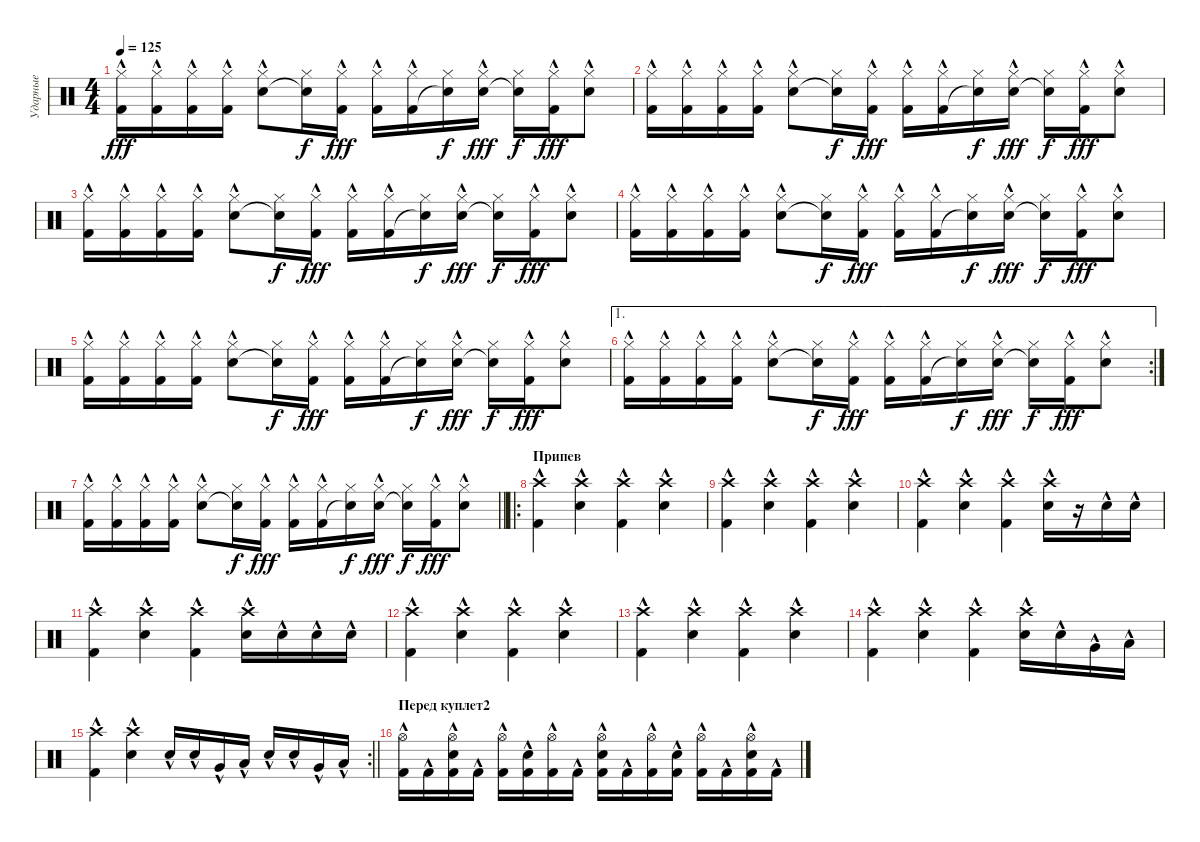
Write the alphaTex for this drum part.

\track ("Ударные" "Ударные") {instrument percussion}
\staff {score}
\articulation defaults
\ts (4 4)
\tempo 125
\clef neutral
\ks c
("Hi-Hat (closed)" "Kick (hit) 2"{hac}).16{dy fff} ("Hi-Hat (closed)" "Kick (hit) 2"{hac}).16 ("Hi-Hat (closed)" "Kick (hit) 2"{hac}).16 ("Hi-Hat (closed)" "Kick (hit) 2"{hac}).16 ("Hi-Hat (closed)" "Electric Snare (hit)"{hac}).8 ("Hi-Hat (closed)" "Snare (hit)"{t}).16{dy f} ("Hi-Hat (closed)" "Kick (hit) 2"{hac}).16{dy fff} ("Hi-Hat (closed)" "Kick (hit) 2"{hac}).16 ("Hi-Hat (closed)" "Kick (hit) 2"{hac}).16 ("Hi-Hat (closed)" "Snare (hit)"{t}).16{dy f} ("Hi-Hat (closed)" "Electric Snare (hit)"{hac}).16{dy fff} ("Hi-Hat (closed)" "Snare (hit)"{t}).16{dy f} ("Hi-Hat (closed)" "Kick (hit) 2"{hac}).16{dy fff} ("Hi-Hat (closed)" "Electric Snare (hit)"{hac}).8 |
("Hi-Hat (closed)" "Kick (hit) 2"{hac}).16 ("Hi-Hat (closed)" "Kick (hit) 2"{hac}).16 ("Hi-Hat (closed)" "Kick (hit) 2"{hac}).16 ("Hi-Hat (closed)" "Kick (hit) 2"{hac}).16 ("Hi-Hat (closed)" "Electric Snare (hit)"{hac}).8 ("Hi-Hat (closed)" "Snare (hit)"{t}).16{dy f} ("Hi-Hat (closed)" "Kick (hit) 2"{hac}).16{dy fff} ("Hi-Hat (closed)" "Kick (hit) 2"{hac}).16 ("Hi-Hat (closed)" "Kick (hit) 2"{hac}).16 ("Hi-Hat (closed)" "Snare (hit)"{t}).16{dy f} ("Hi-Hat (closed)" "Electric Snare (hit)"{hac}).16{dy fff} ("Hi-Hat (closed)" "Snare (hit)"{t}).16{dy f} ("Hi-Hat (closed)" "Kick (hit) 2"{hac}).16{dy fff} ("Hi-Hat (closed)" "Electric Snare (hit)"{hac}).8 |
("Hi-Hat (closed)" "Kick (hit) 2"{hac}).16 ("Hi-Hat (closed)" "Kick (hit) 2"{hac}).16 ("Hi-Hat (closed)" "Kick (hit) 2"{hac}).16 ("Hi-Hat (closed)" "Kick (hit) 2"{hac}).16 ("Hi-Hat (closed)" "Electric Snare (hit)"{hac}).8 ("Hi-Hat (closed)" "Snare (hit)"{t}).16{dy f} ("Hi-Hat (closed)" "Kick (hit) 2"{hac}).16{dy fff} ("Hi-Hat (closed)" "Kick (hit) 2"{hac}).16 ("Hi-Hat (closed)" "Kick (hit) 2"{hac}).16 ("Hi-Hat (closed)" "Snare (hit)"{t}).16{dy f} ("Hi-Hat (closed)" "Electric Snare (hit)"{hac}).16{dy fff} ("Hi-Hat (closed)" "Snare (hit)"{t}).16{dy f} ("Hi-Hat (closed)" "Kick (hit) 2"{hac}).16{dy fff} ("Hi-Hat (closed)" "Electric Snare (hit)"{hac}).8 |
("Hi-Hat (closed)" "Kick (hit) 2"{hac}).16 ("Hi-Hat (closed)" "Kick (hit) 2"{hac}).16 ("Hi-Hat (closed)" "Kick (hit) 2"{hac}).16 ("Hi-Hat (closed)" "Kick (hit) 2"{hac}).16 ("Hi-Hat (closed)" "Electric Snare (hit)"{hac}).8 ("Hi-Hat (closed)" "Snare (hit)"{t}).16{dy f} ("Hi-Hat (closed)" "Kick (hit) 2"{hac}).16{dy fff} ("Hi-Hat (closed)" "Kick (hit) 2"{hac}).16 ("Hi-Hat (closed)" "Kick (hit) 2"{hac}).16 ("Hi-Hat (closed)" "Snare (hit)"{t}).16{dy f} ("Hi-Hat (closed)" "Electric Snare (hit)"{hac}).16{dy fff} ("Hi-Hat (closed)" "Snare (hit)"{t}).16{dy f} ("Hi-Hat (closed)" "Kick (hit) 2"{hac}).16{dy fff} ("Hi-Hat (closed)" "Electric Snare (hit)"{hac}).8 |
("Hi-Hat (closed)" "Kick (hit) 2"{hac}).16 ("Hi-Hat (closed)" "Kick (hit) 2"{hac}).16 ("Hi-Hat (closed)" "Kick (hit) 2"{hac}).16 ("Hi-Hat (closed)" "Kick (hit) 2"{hac}).16 ("Hi-Hat (closed)" "Electric Snare (hit)"{hac}).8 ("Hi-Hat (closed)" "Snare (hit)"{t}).16{dy f} ("Hi-Hat (closed)" "Kick (hit) 2"{hac}).16{dy fff} ("Hi-Hat (closed)" "Kick (hit) 2"{hac}).16 ("Hi-Hat (closed)" "Kick (hit) 2"{hac}).16 ("Hi-Hat (closed)" "Snare (hit)"{t}).16{dy f} ("Hi-Hat (closed)" "Electric Snare (hit)"{hac}).16{dy fff} ("Hi-Hat (closed)" "Snare (hit)"{t}).16{dy f} ("Hi-Hat (closed)" "Kick (hit) 2"{hac}).16{dy fff} ("Hi-Hat (closed)" "Electric Snare (hit)"{hac}).8 |
\ae 1
\rc 2
("Hi-Hat (closed)" "Kick (hit) 2"{hac}).16 ("Hi-Hat (closed)" "Kick (hit) 2"{hac}).16 ("Hi-Hat (closed)" "Kick (hit) 2"{hac}).16 ("Hi-Hat (closed)" "Kick (hit) 2"{hac}).16 ("Hi-Hat (closed)" "Electric Snare (hit)"{hac}).8 ("Hi-Hat (closed)" "Snare (hit)"{t}).16{dy f} ("Hi-Hat (closed)" "Kick (hit) 2"{hac}).16{dy fff} ("Hi-Hat (closed)" "Kick (hit) 2"{hac}).16 ("Hi-Hat (closed)" "Kick (hit) 2"{hac}).16 ("Hi-Hat (closed)" "Snare (hit)"{t}).16{dy f} ("Hi-Hat (closed)" "Electric Snare (hit)"{hac}).16{dy fff} ("Hi-Hat (closed)" "Snare (hit)"{t}).16{dy f} ("Hi-Hat (closed)" "Kick (hit) 2"{hac}).16{dy fff} ("Hi-Hat (closed)" "Electric Snare (hit)"{hac}).8 |
\barLineRight lightlight
("Hi-Hat (closed)" "Kick (hit) 2"{hac}).16 ("Hi-Hat (closed)" "Kick (hit) 2"{hac}).16 ("Hi-Hat (closed)" "Kick (hit) 2"{hac}).16 ("Hi-Hat (closed)" "Kick (hit) 2"{hac}).16 ("Hi-Hat (closed)" "Electric Snare (hit)"{hac}).8 ("Hi-Hat (closed)" "Snare (hit)"{t}).16{dy f} ("Hi-Hat (closed)" "Kick (hit) 2"{hac}).16{dy fff} ("Hi-Hat (closed)" "Kick (hit) 2"{hac}).16 ("Hi-Hat (closed)" "Kick (hit) 2"{hac}).16 ("Hi-Hat (closed)" "Snare (hit)"{t}).16{dy f} ("Hi-Hat (closed)" "Electric Snare (hit)"{hac}).16{dy fff} ("Hi-Hat (closed)" "Snare (hit)"{t}).16{dy f} ("Hi-Hat (closed)" "Kick (hit) 2"{hac}).16{dy fff} ("Hi-Hat (closed)" "Electric Snare (hit)"{hac}).8 |
\ro
\section ("" "Припев")
("Crash high (hit)"{hac} "Kick (hit) 2"{hac}).4 ("Crash high (hit)"{hac} "Electric Snare (hit)"{hac}).4 ("Crash high (hit)"{hac} "Kick (hit) 2"{hac}).4 ("Crash high (hit)"{hac} "Electric Snare (hit)"{hac}).4 |
("Crash high (hit)"{hac} "Kick (hit) 2"{hac}).4 ("Crash high (hit)"{hac} "Electric Snare (hit)"{hac}).4 ("Crash high (hit)"{hac} "Kick (hit) 2"{hac}).4 ("Crash high (hit)"{hac} "Electric Snare (hit)"{hac}).4 |
("Crash high (hit)"{hac} "Kick (hit) 2"{hac}).4 ("Crash high (hit)"{hac} "Electric Snare (hit)"{hac}).4 ("Crash high (hit)"{hac} "Kick (hit) 2"{hac}).4 ("Crash high (hit)"{hac} "Electric Snare (hit)"{hac}).16 r.16 "Electric Snare (hit)"{hac}.16 "Electric Snare (hit)"{hac}.16 |
("Crash high (hit)"{hac} "Kick (hit) 2"{hac}).4 ("Crash high (hit)"{hac} "Electric Snare (hit)"{hac}).4 ("Crash high (hit)"{hac} "Kick (hit) 2"{hac}).4 ("Crash high (hit)"{hac} "Electric Snare (hit)"{hac}).16 "Electric Snare (hit)"{hac}.16 "Electric Snare (hit)"{hac}.16 "Electric Snare (hit)"{hac}.16 |
("Crash high (hit)"{hac} "Kick (hit) 2"{hac}).4 ("Crash high (hit)"{hac} "Electric Snare (hit)"{hac}).4 ("Crash high (hit)"{hac} "Kick (hit) 2"{hac}).4 ("Crash high (hit)"{hac} "Electric Snare (hit)"{hac}).4 |
("Crash high (hit)"{hac} "Kick (hit) 2"{hac}).4 ("Crash high (hit)"{hac} "Electric Snare (hit)"{hac}).4 ("Crash high (hit)"{hac} "Kick (hit) 2"{hac}).4 ("Crash high (hit)"{hac} "Electric Snare (hit)"{hac}).4 |
("Crash high (hit)"{hac} "Kick (hit) 2"{hac}).4 ("Crash high (hit)"{hac} "Electric Snare (hit)"{hac}).4 ("Crash high (hit)"{hac} "Kick (hit) 2"{hac}).4 ("Crash high (hit)"{hac} "Electric Snare (hit)"{hac}).16 "Electric Snare (hit)"{hac}.16 "Very Low Tom (hit)"{hac}.16 "Low Tom (hit)"{hac}.16 |
\rc 2
\barLineRight lightlight
("Crash high (hit)"{hac} "Kick (hit) 2"{hac}).4 ("Crash high (hit)"{hac} "Electric Snare (hit)"{hac}).4 "Electric Snare (hit)"{hac}.16 "Electric Snare (hit)"{hac}.16 "Very Low Tom (hit)"{hac}.16 "Low Tom (hit)"{hac}.16 "Electric Snare (hit)"{hac}.16 "Electric Snare (hit)"{hac}.16 "Very Low Tom (hit)"{hac}.16 "Low Tom (hit)"{hac}.16 |
\section ("" "Перед куплет2")
("Hi-Hat (open)"{hac} "Kick (hit) 2"{hac}).16 "Kick (hit) 2"{hac}.16 ("Hi-Hat (open)"{hac} "Electric Snare (hit)"{hac} "Kick (hit) 2"{hac}).16 "Kick (hit) 2"{hac}.16 ("Hi-Hat (open)"{hac} "Kick (hit) 2"{hac}).16 ("Electric Snare (hit)"{hac} "Kick (hit) 2"{hac}).16 ("Hi-Hat (open)"{hac} "Kick (hit) 2"{hac}).16 "Kick (hit) 2"{hac}.16 ("Hi-Hat (open)"{hac} "Electric Snare (hit)"{hac} "Kick (hit) 2"{hac}).16 "Kick (hit) 2"{hac}.16 ("Hi-Hat (open)"{hac} "Kick (hit) 2"{hac}).16 ("Electric Snare (hit)"{hac} "Kick (hit) 2"{hac}).16 ("Hi-Hat (open)"{hac} "Kick (hit) 2"{hac}).16 "Kick (hit) 2"{hac}.16 ("Hi-Hat (open)"{hac} "Electric Snare (hit)"{hac} "Kick (hit) 2"{hac}).16 "Kick (hit) 2"{hac}.16
